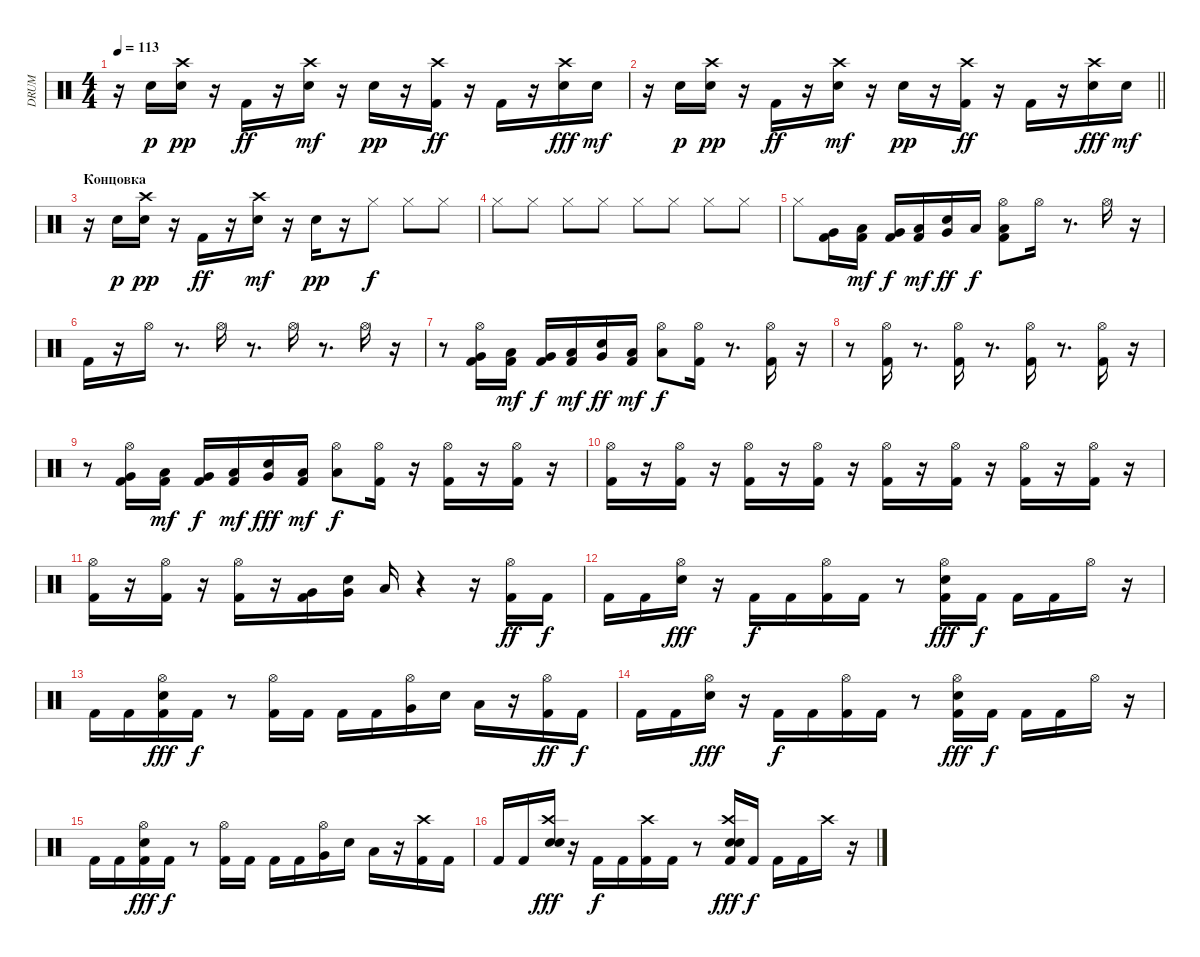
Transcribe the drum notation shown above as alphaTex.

\track ("DRUM" "DRUM") {instrument percussion}
\staff {score}
\articulation defaults
\ts (4 4)
\tempo 113
\clef neutral
\ks c
r.16{dy mf} "Electric Snare (hit)".16{dy p} ("Electric Snare (hit)" "Crash high (hit)").16{dy pp} r.16 "Kick (hit) 2".16{dy ff} r.16 ("Electric Snare (hit)" "Crash high (hit)").16{dy mf} r.16 "Electric Snare (hit)".16{dy pp} r.16 ("Crash high (hit)" "Kick (hit) 2").16{dy ff} r.16 "Kick (hit) 2".16 r.16 ("Crash high (hit)" "Electric Snare (hit)").16{dy fff} "Electric Snare (hit)".16{dy mf} |
\barLineRight lightlight
r.16 "Electric Snare (hit)".16{dy p} ("Electric Snare (hit)" "Crash high (hit)").16{dy pp} r.16 "Kick (hit) 2".16{dy ff} r.16 ("Electric Snare (hit)" "Crash high (hit)").16{dy mf} r.16 "Electric Snare (hit)".16{dy pp} r.16 ("Crash high (hit)" "Kick (hit) 2").16{dy ff} r.16 "Kick (hit) 2".16 r.16 ("Crash high (hit)" "Electric Snare (hit)").16{dy fff} "Electric Snare (hit)".16{dy mf} |
\section ("" "Концовка")
r.16 "Electric Snare (hit)".16{dy p} ("Electric Snare (hit)" "Crash high (hit)").16{dy pp} r.16 "Kick (hit) 2".16{dy ff} r.16 ("Electric Snare (hit)" "Crash high (hit)").16{dy mf} r.16 "Electric Snare (hit)".16{dy pp} r.16 "Hi-Hat (closed)".8{dy f} "Hi-Hat (closed)".8 "Hi-Hat (closed)".8 |
"Hi-Hat (closed)".8 "Hi-Hat (closed)".8 "Hi-Hat (closed)".8 "Hi-Hat (closed)".8 "Hi-Hat (closed)".8 "Hi-Hat (closed)".8 "Hi-Hat (closed)".8 "Hi-Hat (closed)".8 |
"Hi-Hat (closed)".8 ("Very Low Tom (hit)" "Kick (hit) 2").16 ("Kick (hit) 2" "Low Floor Tom (hit)").16{dy mf} ("Kick (hit) 2" "Very Low Tom (hit)").16{dy f} ("Kick (hit) 2" "Low Floor Tom (hit)").16{dy mf} ("Electric Snare (hit)" "Very Low Tom (hit)").16{dy ff} "Low Floor Tom (hit)".16{dy f} ("Kick (hit) 2" "Low Tom (hit)" "Hi-Hat (open)").8 "Hi-Hat (open)".16 r.8{d} "Hi-Hat (open)".16 r.16 |
"Kick (hit) 2".16 r.16 "Hi-Hat (open)".16 r.8{d} "Hi-Hat (open)".16 r.8{d} "Hi-Hat (open)".16 r.8{d} "Hi-Hat (open)".16 r.16 |
r.8 ("Hi-Hat (open)" "Very Low Tom (hit)" "Kick (hit) 2").16 ("Kick (hit) 2" "Low Floor Tom (hit)").16{dy mf} ("Very Low Tom (hit)" "Kick (hit) 2").16{dy f} ("Low Floor Tom (hit)" "Kick (hit) 2").16{dy mf} ("Electric Snare (hit)" "Very Low Tom (hit)").16{dy ff} ("Low Floor Tom (hit)" "Kick (hit) 2").16{dy mf} ("Low Tom (hit)" "Hi-Hat (open)").8{dy f} ("Kick (hit) 2" "Hi-Hat (open)").16 r.8{d} ("Hi-Hat (open)" "Kick (hit) 2").16 r.16 |
r.8 ("Kick (hit) 2" "Hi-Hat (open)").16 r.8{d} ("Hi-Hat (open)" "Kick (hit) 2").16 r.8{d} ("Hi-Hat (open)" "Kick (hit) 2").16 r.8{d} ("Hi-Hat (open)" "Kick (hit) 2").16 r.16 |
r.8 ("Kick (hit) 2" "Very Low Tom (hit)" "Hi-Hat (open)").16 ("Kick (hit) 2" "Low Floor Tom (hit)").16{dy mf} ("Kick (hit) 2" "Very Low Tom (hit)").16{dy f} ("Low Floor Tom (hit)" "Kick (hit) 2").16{dy mf} ("Electric Snare (hit)" "Very Low Tom (hit)").16{dy fff} ("Kick (hit) 2" "Low Floor Tom (hit)").16{dy mf} ("Hi-Hat (open)" "Low Tom (hit)").8{dy f} ("Kick (hit) 2" "Hi-Hat (open)").16 r.16 ("Hi-Hat (open)" "Kick (hit) 2").16 r.16 ("Kick (hit) 2" "Hi-Hat (open)").16 r.16 |
("Hi-Hat (open)" "Kick (hit) 2").16 r.16 ("Kick (hit) 2" "Hi-Hat (open)").16 r.16 ("Hi-Hat (open)" "Kick (hit) 2").16 r.16 ("Kick (hit) 2" "Hi-Hat (open)").16 r.16 ("Hi-Hat (open)" "Kick (hit) 2").16 r.16 ("Kick (hit) 2" "Hi-Hat (open)").16 r.16 ("Kick (hit) 2" "Hi-Hat (open)").16 r.16 ("Kick (hit) 2" "Hi-Hat (open)").16 r.16 |
("Kick (hit) 2" "Hi-Hat (open)").16 r.16 ("Hi-Hat (open)" "Kick (hit) 2").16 r.16 ("Hi-Hat (open)" "Kick (hit) 2").16 r.16 ("Kick (hit) 2" "Very Low Tom (hit)").16 ("Electric Snare (hit)" "Very Low Tom (hit)").16 "Low Tom (hit)".16 r.4 r.16 ("Hi-Hat (open)" "Kick (hit) 2").16{dy ff} "Kick (hit) 2".16{dy f} |
"Kick (hit) 2".16 "Kick (hit) 2".16 ("Hi-Hat (open)" "Electric Snare (hit)").16{dy fff} r.16 "Kick (hit) 2".16{dy f} "Kick (hit) 2".16 ("Hi-Hat (open)" "Kick (hit) 2").16 "Kick (hit) 2".16 r.8 ("Hi-Hat (open)" "Electric Snare (hit)" "Kick (hit) 2").16{dy fff} "Kick (hit) 2".16{dy f} "Kick (hit) 2".16 "Kick (hit) 2".16 "Hi-Hat (open)".16 r.16 |
"Kick (hit) 2".16 "Kick (hit) 2".16 ("Hi-Hat (open)" "Electric Snare (hit)" "Kick (hit) 2").16{dy fff} "Kick (hit) 2".16{dy f} r.8 ("Hi-Hat (open)" "Kick (hit) 2").16 "Kick (hit) 2".16 "Kick (hit) 2".16 "Kick (hit) 2".16 ("Hi-Hat (open)" "Very Low Tom (hit)").16 "Electric Snare (hit)".16 "Low Tom (hit)".16 r.16 ("Hi-Hat (open)" "Kick (hit) 2").16{dy ff} "Kick (hit) 2".16{dy f} |
"Kick (hit) 2".16 "Kick (hit) 2".16 ("Hi-Hat (open)" "Electric Snare (hit)").16{dy fff} r.16 "Kick (hit) 2".16{dy f} "Kick (hit) 2".16 ("Hi-Hat (open)" "Kick (hit) 2").16 "Kick (hit) 2".16 r.8 ("Hi-Hat (open)" "Electric Snare (hit)" "Kick (hit) 2").16{dy fff} "Kick (hit) 2".16{dy f} "Kick (hit) 2".16 "Kick (hit) 2".16 "Hi-Hat (open)".16 r.16 |
"Kick (hit) 2".16 "Kick (hit) 2".16 ("Hi-Hat (open)" "Electric Snare (hit)" "Kick (hit) 2").16{dy fff} "Kick (hit) 2".16{dy f} r.8 ("Hi-Hat (open)" "Kick (hit) 2").16 "Kick (hit) 2".16 "Kick (hit) 2".16 "Kick (hit) 2".16 ("Hi-Hat (open)" "Very Low Tom (hit)").16 "Electric Snare (hit)".16 "Low Tom (hit)".16 r.16 ("Crash high (hit)" "Kick (hit) 2").16 "Kick (hit) 2".16 |
"Kick (hit) 2".16 "Kick (hit) 2".16 ("Electric Snare (hit)" "Crash high (hit)" "Snare (hit) 2").16{dy fff} r.16 "Kick (hit) 2".16{dy f} "Kick (hit) 2".16 ("Crash high (hit)" "Kick (hit) 2").16 "Kick (hit) 2".16 r.8 ("Electric Snare (hit)" "Crash high (hit)" "Snare (hit) 2" "Kick (hit) 2").16{dy fff} "Kick (hit) 2".16{dy f} "Kick (hit) 2".16 "Kick (hit) 2".16 "Crash high (hit)".16 r.16
